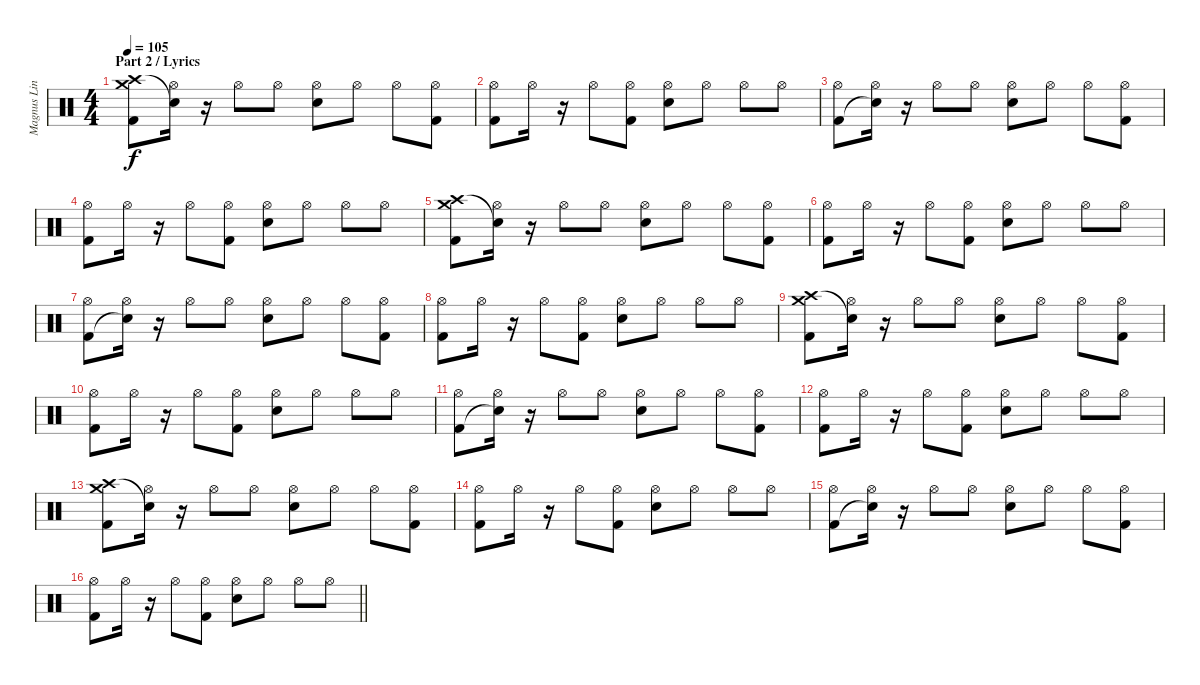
\track ("Magnus Lindberg" "Magnus Lin") {instrument percussion}
\staff {score}
\articulation defaults
\ts (4 4)
\section ("" "Part 2 / Lyrics")
\tempo 105
\clef neutral
\ks c
("Crash medium (hit)" "Crash high (hit)" "Kick (hit) 2").8{dy f} ("Hi-Hat (open)" "Snare (hit)"{t}).16 r.16 "Hi-Hat (open)".8 "Hi-Hat (open)".8 ("Hi-Hat (open)" "Snare (hit) 2").8 "Hi-Hat (open)".8 "Hi-Hat (open)".8 ("Hi-Hat (open)" "Kick (hit) 2").8 |
("Hi-Hat (open)" "Kick (hit) 2").8 "Hi-Hat (open)".16 r.16 "Hi-Hat (open)".8 ("Hi-Hat (open)" "Kick (hit) 2").8 ("Hi-Hat (open)" "Snare (hit) 2").8 "Hi-Hat (open)".8 "Hi-Hat (open)".8 "Hi-Hat (open)".8 |
("Hi-Hat (open)" "Kick (hit) 2").8 ("Hi-Hat (open)" "Snare (hit)"{t}).16 r.16 "Hi-Hat (open)".8 "Hi-Hat (open)".8 ("Hi-Hat (open)" "Snare (hit) 2").8 "Hi-Hat (open)".8 "Hi-Hat (open)".8 ("Hi-Hat (open)" "Kick (hit) 2").8 |
("Hi-Hat (open)" "Kick (hit) 2").8 "Hi-Hat (open)".16 r.16 "Hi-Hat (open)".8 ("Hi-Hat (open)" "Kick (hit) 2").8 ("Hi-Hat (open)" "Snare (hit) 2").8 "Hi-Hat (open)".8 "Hi-Hat (open)".8 "Hi-Hat (open)".8 |
("Crash medium (hit)" "Crash high (hit)" "Kick (hit) 2").8 ("Hi-Hat (open)" "Snare (hit)"{t}).16 r.16 "Hi-Hat (open)".8 "Hi-Hat (open)".8 ("Hi-Hat (open)" "Snare (hit) 2").8 "Hi-Hat (open)".8 "Hi-Hat (open)".8 ("Hi-Hat (open)" "Kick (hit) 2").8 |
("Hi-Hat (open)" "Kick (hit) 2").8 "Hi-Hat (open)".16 r.16 "Hi-Hat (open)".8 ("Hi-Hat (open)" "Kick (hit) 2").8 ("Hi-Hat (open)" "Snare (hit) 2").8 "Hi-Hat (open)".8 "Hi-Hat (open)".8 "Hi-Hat (open)".8 |
("Hi-Hat (open)" "Kick (hit) 2").8 ("Hi-Hat (open)" "Snare (hit)"{t}).16 r.16 "Hi-Hat (open)".8 "Hi-Hat (open)".8 ("Hi-Hat (open)" "Snare (hit) 2").8 "Hi-Hat (open)".8 "Hi-Hat (open)".8 ("Hi-Hat (open)" "Kick (hit) 2").8 |
("Hi-Hat (open)" "Kick (hit) 2").8 "Hi-Hat (open)".16 r.16 "Hi-Hat (open)".8 ("Hi-Hat (open)" "Kick (hit) 2").8 ("Hi-Hat (open)" "Snare (hit) 2").8 "Hi-Hat (open)".8 "Hi-Hat (open)".8 "Hi-Hat (open)".8 |
("Crash medium (hit)" "Crash high (hit)" "Kick (hit) 2").8 ("Hi-Hat (open)" "Snare (hit)"{t}).16 r.16 "Hi-Hat (open)".8 "Hi-Hat (open)".8 ("Hi-Hat (open)" "Snare (hit) 2").8 "Hi-Hat (open)".8 "Hi-Hat (open)".8 ("Hi-Hat (open)" "Kick (hit) 2").8 |
("Hi-Hat (open)" "Kick (hit) 2").8 "Hi-Hat (open)".16 r.16 "Hi-Hat (open)".8 ("Hi-Hat (open)" "Kick (hit) 2").8 ("Hi-Hat (open)" "Snare (hit) 2").8 "Hi-Hat (open)".8 "Hi-Hat (open)".8 "Hi-Hat (open)".8 |
("Hi-Hat (open)" "Kick (hit) 2").8 ("Hi-Hat (open)" "Snare (hit)"{t}).16 r.16 "Hi-Hat (open)".8 "Hi-Hat (open)".8 ("Hi-Hat (open)" "Snare (hit) 2").8 "Hi-Hat (open)".8 "Hi-Hat (open)".8 ("Hi-Hat (open)" "Kick (hit) 2").8 |
("Hi-Hat (open)" "Kick (hit) 2").8 "Hi-Hat (open)".16 r.16 "Hi-Hat (open)".8 ("Hi-Hat (open)" "Kick (hit) 2").8 ("Hi-Hat (open)" "Snare (hit) 2").8 "Hi-Hat (open)".8 "Hi-Hat (open)".8 "Hi-Hat (open)".8 |
("Crash medium (hit)" "Crash high (hit)" "Kick (hit) 2").8 ("Hi-Hat (open)" "Snare (hit)"{t}).16 r.16 "Hi-Hat (open)".8 "Hi-Hat (open)".8 ("Hi-Hat (open)" "Snare (hit) 2").8 "Hi-Hat (open)".8 "Hi-Hat (open)".8 ("Hi-Hat (open)" "Kick (hit) 2").8 |
("Hi-Hat (open)" "Kick (hit) 2").8 "Hi-Hat (open)".16 r.16 "Hi-Hat (open)".8 ("Hi-Hat (open)" "Kick (hit) 2").8 ("Hi-Hat (open)" "Snare (hit) 2").8 "Hi-Hat (open)".8 "Hi-Hat (open)".8 "Hi-Hat (open)".8 |
("Hi-Hat (open)" "Kick (hit) 2").8 ("Hi-Hat (open)" "Snare (hit)"{t}).16 r.16 "Hi-Hat (open)".8 "Hi-Hat (open)".8 ("Hi-Hat (open)" "Snare (hit) 2").8 "Hi-Hat (open)".8 "Hi-Hat (open)".8 ("Hi-Hat (open)" "Kick (hit) 2").8 |
\barLineRight lightlight
("Hi-Hat (open)" "Kick (hit) 2").8 "Hi-Hat (open)".16 r.16 "Hi-Hat (open)".8 ("Hi-Hat (open)" "Kick (hit) 2").8 ("Hi-Hat (open)" "Snare (hit) 2").8 "Hi-Hat (open)".8 "Hi-Hat (open)".8 "Hi-Hat (open)".8
